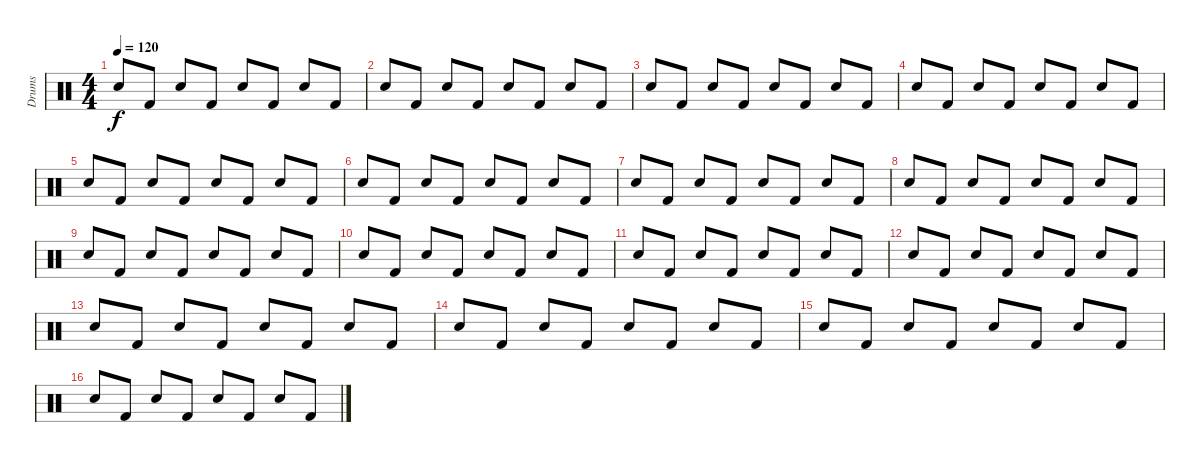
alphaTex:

\track ("Drums" "Drums") {instrument percussion}
\staff {score}
\articulation defaults
\ts (4 4)
\tempo 120
\clef neutral
\ks c "Snare (hit) 2".8{dy f} "Kick (hit) 2".8 "Snare (hit) 2".8 "Kick (hit) 2".8 "Snare (hit) 2".8 "Kick (hit) 2".8 "Snare (hit) 2".8 "Kick (hit) 2".8
|
"Snare (hit) 2".8 "Kick (hit) 2".8 "Snare (hit) 2".8 "Kick (hit) 2".8 "Snare (hit) 2".8 "Kick (hit) 2".8 "Snare (hit) 2".8 "Kick (hit) 2".8 |
"Snare (hit) 2".8 "Kick (hit) 2".8 "Snare (hit) 2".8 "Kick (hit) 2".8 "Snare (hit) 2".8 "Kick (hit) 2".8 "Snare (hit) 2".8 "Kick (hit) 2".8 |
"Snare (hit) 2".8 "Kick (hit) 2".8 "Snare (hit) 2".8 "Kick (hit) 2".8 "Snare (hit) 2".8 "Kick (hit) 2".8 "Snare (hit) 2".8 "Kick (hit) 2".8 |
"Snare (hit) 2".8 "Kick (hit) 2".8 "Snare (hit) 2".8 "Kick (hit) 2".8 "Snare (hit) 2".8 "Kick (hit) 2".8 "Snare (hit) 2".8 "Kick (hit) 2".8 |
"Snare (hit) 2".8 "Kick (hit) 2".8 "Snare (hit) 2".8 "Kick (hit) 2".8 "Snare (hit) 2".8 "Kick (hit) 2".8 "Snare (hit) 2".8 "Kick (hit) 2".8 |
"Snare (hit) 2".8 "Kick (hit) 2".8 "Snare (hit) 2".8 "Kick (hit) 2".8 "Snare (hit) 2".8 "Kick (hit) 2".8 "Snare (hit) 2".8 "Kick (hit) 2".8 |
"Snare (hit) 2".8 "Kick (hit) 2".8 "Snare (hit) 2".8 "Kick (hit) 2".8 "Snare (hit) 2".8 "Kick (hit) 2".8 "Snare (hit) 2".8 "Kick (hit) 2".8 |
"Snare (hit) 2".8 "Kick (hit) 2".8 "Snare (hit) 2".8 "Kick (hit) 2".8 "Snare (hit) 2".8 "Kick (hit) 2".8 "Snare (hit) 2".8 "Kick (hit) 2".8 |
"Snare (hit) 2".8 "Kick (hit) 2".8 "Snare (hit) 2".8 "Kick (hit) 2".8 "Snare (hit) 2".8 "Kick (hit) 2".8 "Snare (hit) 2".8 "Kick (hit) 2".8 |
"Snare (hit) 2".8 "Kick (hit) 2".8 "Snare (hit) 2".8 "Kick (hit) 2".8 "Snare (hit) 2".8 "Kick (hit) 2".8 "Snare (hit) 2".8 "Kick (hit) 2".8 |
"Snare (hit) 2".8 "Kick (hit) 2".8 "Snare (hit) 2".8 "Kick (hit) 2".8 "Snare (hit) 2".8 "Kick (hit) 2".8 "Snare (hit) 2".8 "Kick (hit) 2".8 |
"Snare (hit) 2".8 "Kick (hit) 2".8 "Snare (hit) 2".8 "Kick (hit) 2".8 "Snare (hit) 2".8 "Kick (hit) 2".8 "Snare (hit) 2".8 "Kick (hit) 2".8 |
"Snare (hit) 2".8 "Kick (hit) 2".8 "Snare (hit) 2".8 "Kick (hit) 2".8 "Snare (hit) 2".8 "Kick (hit) 2".8 "Snare (hit) 2".8 "Kick (hit) 2".8 |
"Snare (hit) 2".8 "Kick (hit) 2".8 "Snare (hit) 2".8 "Kick (hit) 2".8 "Snare (hit) 2".8 "Kick (hit) 2".8 "Snare (hit) 2".8 "Kick (hit) 2".8 |
"Snare (hit) 2".8 "Kick (hit) 2".8 "Snare (hit) 2".8 "Kick (hit) 2".8 "Snare (hit) 2".8 "Kick (hit) 2".8 "Snare (hit) 2".8 "Kick (hit) 2".8
